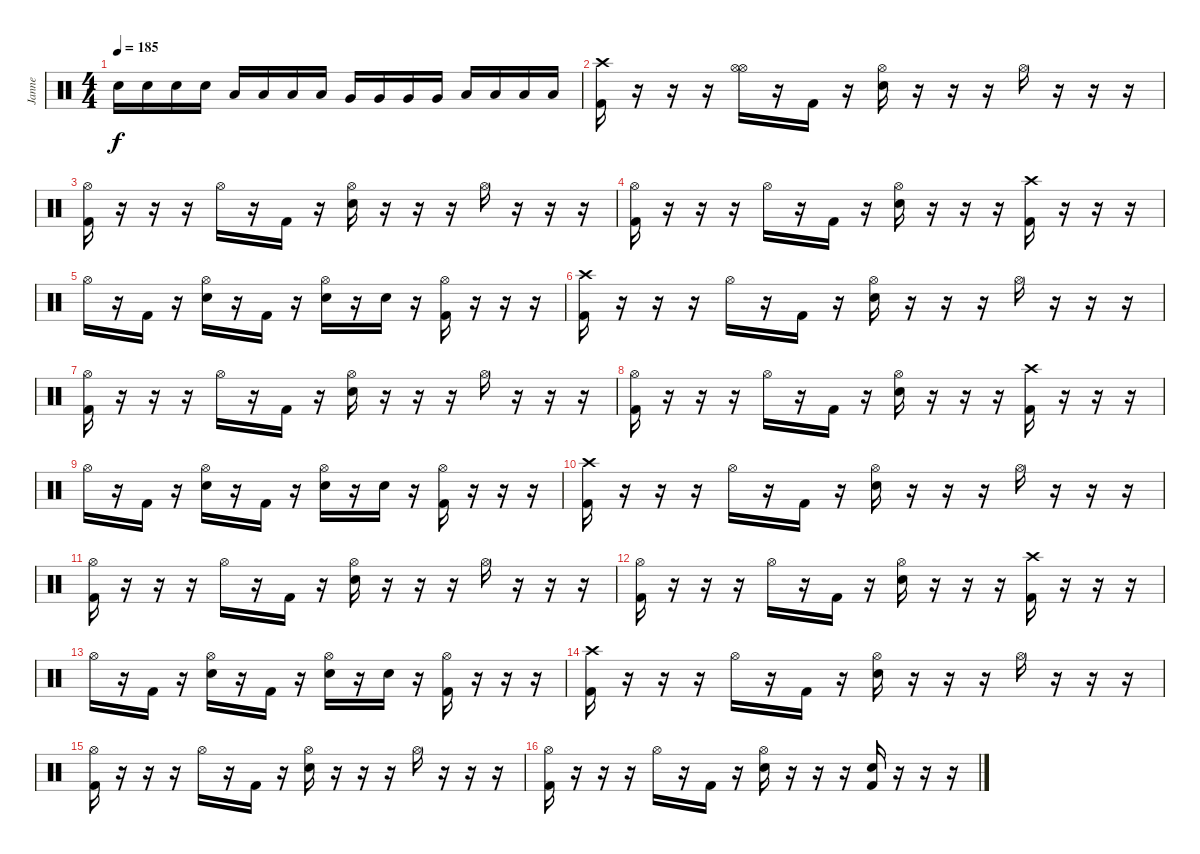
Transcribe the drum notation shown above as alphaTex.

\track ("Janne" "Janne") {instrument percussion}
\staff {score}
\articulation defaults
\ts (4 4)
\tempo 185
\clef neutral
\ks c "Electric Snare (hit)".16{dy f} "Electric Snare (hit)".16 "Electric Snare (hit)".16 "Electric Snare (hit)".16 "Low Tom (hit)".16 "Low Tom (hit)".16 "Low Tom (hit)".16 "Low Tom (hit)".16 "Very Low Tom (hit)".16 "Very Low Tom (hit)".16 "Very Low Tom (hit)".16 "Very Low Tom (hit)".16 "Low Floor Tom (hit)".16 "Low Floor Tom (hit)".16 "Low Floor Tom (hit)".16 "Low Floor Tom (hit)".16
|
("Crash high (hit)" "Kick (hit) 2").16 r.16 r.16 r.16 ("Hi-Hat (open)" "Hi-Hat (open)").16 r.16 "Kick (hit) 2".16 r.16 ("Hi-Hat (open)" "Electric Snare (hit)").16 r.16 r.16 r.16 "Hi-Hat (open)".16 r.16 r.16 r.16 |
("Hi-Hat (open)" "Kick (hit) 2").16 r.16 r.16 r.16 "Hi-Hat (open)".16 r.16 "Kick (hit) 2".16 r.16 ("Hi-Hat (open)" "Electric Snare (hit)").16 r.16 r.16 r.16 "Hi-Hat (open)".16 r.16 r.16 r.16 |
("Hi-Hat (open)" "Kick (hit) 2").16 r.16 r.16 r.16 "Hi-Hat (open)".16 r.16 "Kick (hit) 2".16 r.16 ("Hi-Hat (open)" "Electric Snare (hit)").16 r.16 r.16 r.16 ("Crash high (hit)" "Kick (hit) 2").16 r.16 r.16 r.16 |
"Hi-Hat (open)".16 r.16 "Kick (hit) 2".16 r.16 ("Hi-Hat (open)" "Electric Snare (hit)").16 r.16 "Kick (hit) 2".16 r.16 ("Hi-Hat (open)" "Electric Snare (hit)").16 r.16 "Electric Snare (hit)".16 r.16 ("Hi-Hat (open)" "Kick (hit) 2").16 r.16 r.16 r.16 |
("Crash high (hit)" "Kick (hit) 2").16 r.16 r.16 r.16 "Hi-Hat (open)".16 r.16 "Kick (hit) 2".16 r.16 ("Hi-Hat (open)" "Electric Snare (hit)").16 r.16 r.16 r.16 "Hi-Hat (open)".16 r.16 r.16 r.16 |
("Hi-Hat (open)" "Kick (hit) 2").16 r.16 r.16 r.16 "Hi-Hat (open)".16 r.16 "Kick (hit) 2".16 r.16 ("Hi-Hat (open)" "Electric Snare (hit)").16 r.16 r.16 r.16 "Hi-Hat (open)".16 r.16 r.16 r.16 |
("Hi-Hat (open)" "Kick (hit) 2").16 r.16 r.16 r.16 "Hi-Hat (open)".16 r.16 "Kick (hit) 2".16 r.16 ("Hi-Hat (open)" "Electric Snare (hit)").16 r.16 r.16 r.16 ("Crash high (hit)" "Kick (hit) 2").16 r.16 r.16 r.16 |
"Hi-Hat (open)".16 r.16 "Kick (hit) 2".16 r.16 ("Hi-Hat (open)" "Electric Snare (hit)").16 r.16 "Kick (hit) 2".16 r.16 ("Hi-Hat (open)" "Electric Snare (hit)").16 r.16 "Electric Snare (hit)".16 r.16 ("Hi-Hat (open)" "Kick (hit) 2").16 r.16 r.16 r.16 |
("Crash high (hit)" "Kick (hit) 2").16 r.16 r.16 r.16 "Hi-Hat (open)".16 r.16 "Kick (hit) 2".16 r.16 ("Hi-Hat (open)" "Electric Snare (hit)").16 r.16 r.16 r.16 "Hi-Hat (open)".16 r.16 r.16 r.16 |
("Hi-Hat (open)" "Kick (hit) 2").16 r.16 r.16 r.16 "Hi-Hat (open)".16 r.16 "Kick (hit) 2".16 r.16 ("Hi-Hat (open)" "Electric Snare (hit)").16 r.16 r.16 r.16 "Hi-Hat (open)".16 r.16 r.16 r.16 |
("Hi-Hat (open)" "Kick (hit) 2").16 r.16 r.16 r.16 "Hi-Hat (open)".16 r.16 "Kick (hit) 2".16 r.16 ("Hi-Hat (open)" "Electric Snare (hit)").16 r.16 r.16 r.16 ("Crash high (hit)" "Kick (hit) 2").16 r.16 r.16 r.16 |
"Hi-Hat (open)".16 r.16 "Kick (hit) 2".16 r.16 ("Hi-Hat (open)" "Electric Snare (hit)").16 r.16 "Kick (hit) 2".16 r.16 ("Hi-Hat (open)" "Electric Snare (hit)").16 r.16 "Electric Snare (hit)".16 r.16 ("Hi-Hat (open)" "Kick (hit) 2").16 r.16 r.16 r.16 |
("Crash high (hit)" "Kick (hit) 2").16 r.16 r.16 r.16 "Hi-Hat (open)".16 r.16 "Kick (hit) 2".16 r.16 ("Hi-Hat (open)" "Electric Snare (hit)").16 r.16 r.16 r.16 "Hi-Hat (open)".16 r.16 r.16 r.16 |
("Hi-Hat (open)" "Kick (hit) 2").16 r.16 r.16 r.16 "Hi-Hat (open)".16 r.16 "Kick (hit) 2".16 r.16 ("Hi-Hat (open)" "Electric Snare (hit)").16 r.16 r.16 r.16 "Hi-Hat (open)".16 r.16 r.16 r.16 |
("Hi-Hat (open)" "Kick (hit) 2").16 r.16 r.16 r.16 "Hi-Hat (open)".16 r.16 "Kick (hit) 2".16 r.16 ("Hi-Hat (open)" "Electric Snare (hit)").16 r.16 r.16 r.16 ("Electric Snare (hit)" "Kick (hit) 2").16 r.16 r.16 r.16
